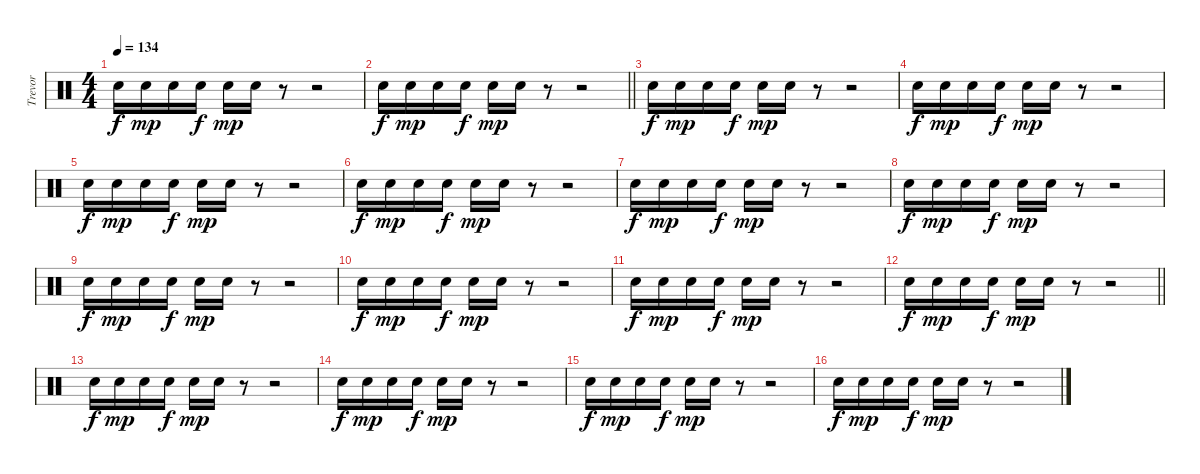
\track ("Trevor" "Trevor") {instrument percussion}
\staff {score}
\articulation defaults
\ts (4 4)
\tempo 134
\clef neutral
\ks c "Snare (hit) 2".16{dy f} "Snare (hit) 2".16{dy mp} "Snare (hit) 2".16 "Snare (hit) 2".16{dy f} "Snare (hit) 2".16{dy mp} "Snare (hit) 2".16
r.8 r.2 |
\barLineRight lightlight "Snare (hit) 2".16{dy f} "Snare (hit) 2".16{dy mp} "Snare (hit) 2".16 "Snare (hit) 2".16{dy f} "Snare (hit) 2".16{dy mp} "Snare (hit) 2".16
r.8 r.2 |
\section ("" "")
"Snare (hit) 2".16{dy f} "Snare (hit) 2".16{dy mp} "Snare (hit) 2".16 "Snare (hit) 2".16{dy f} "Snare (hit) 2".16{dy mp} "Snare (hit) 2".16 r.8 r.2 |
"Snare (hit) 2".16{dy f} "Snare (hit) 2".16{dy mp} "Snare (hit) 2".16 "Snare (hit) 2".16{dy f} "Snare (hit) 2".16{dy mp} "Snare (hit) 2".16 r.8 r.2 |
"Snare (hit) 2".16{dy f} "Snare (hit) 2".16{dy mp} "Snare (hit) 2".16 "Snare (hit) 2".16{dy f} "Snare (hit) 2".16{dy mp} "Snare (hit) 2".16 r.8 r.2 |
"Snare (hit) 2".16{dy f} "Snare (hit) 2".16{dy mp} "Snare (hit) 2".16 "Snare (hit) 2".16{dy f} "Snare (hit) 2".16{dy mp} "Snare (hit) 2".16 r.8 r.2 |
"Snare (hit) 2".16{dy f} "Snare (hit) 2".16{dy mp} "Snare (hit) 2".16 "Snare (hit) 2".16{dy f} "Snare (hit) 2".16{dy mp} "Snare (hit) 2".16 r.8 r.2 |
"Snare (hit) 2".16{dy f} "Snare (hit) 2".16{dy mp} "Snare (hit) 2".16 "Snare (hit) 2".16{dy f} "Snare (hit) 2".16{dy mp} "Snare (hit) 2".16 r.8 r.2 |
"Snare (hit) 2".16{dy f} "Snare (hit) 2".16{dy mp} "Snare (hit) 2".16 "Snare (hit) 2".16{dy f} "Snare (hit) 2".16{dy mp} "Snare (hit) 2".16 r.8 r.2 |
"Snare (hit) 2".16{dy f} "Snare (hit) 2".16{dy mp} "Snare (hit) 2".16 "Snare (hit) 2".16{dy f} "Snare (hit) 2".16{dy mp} "Snare (hit) 2".16 r.8 r.2 |
"Snare (hit) 2".16{dy f} "Snare (hit) 2".16{dy mp} "Snare (hit) 2".16 "Snare (hit) 2".16{dy f} "Snare (hit) 2".16{dy mp} "Snare (hit) 2".16 r.8 r.2 |
\barLineRight lightlight "Snare (hit) 2".16{dy f} "Snare (hit) 2".16{dy mp} "Snare (hit) 2".16 "Snare (hit) 2".16{dy f} "Snare (hit) 2".16{dy mp} "Snare (hit) 2".16
r.8 r.2 |
\section ("" "")
"Snare (hit) 2".16{dy f} "Snare (hit) 2".16{dy mp} "Snare (hit) 2".16 "Snare (hit) 2".16{dy f} "Snare (hit) 2".16{dy mp} "Snare (hit) 2".16 r.8 r.2 |
"Snare (hit) 2".16{dy f} "Snare (hit) 2".16{dy mp} "Snare (hit) 2".16 "Snare (hit) 2".16{dy f} "Snare (hit) 2".16{dy mp} "Snare (hit) 2".16 r.8 r.2 |
"Snare (hit) 2".16{dy f} "Snare (hit) 2".16{dy mp} "Snare (hit) 2".16 "Snare (hit) 2".16{dy f} "Snare (hit) 2".16{dy mp} "Snare (hit) 2".16 r.8 r.2 |
"Snare (hit) 2".16{dy f} "Snare (hit) 2".16{dy mp} "Snare (hit) 2".16 "Snare (hit) 2".16{dy f} "Snare (hit) 2".16{dy mp} "Snare (hit) 2".16 r.8 r.2
